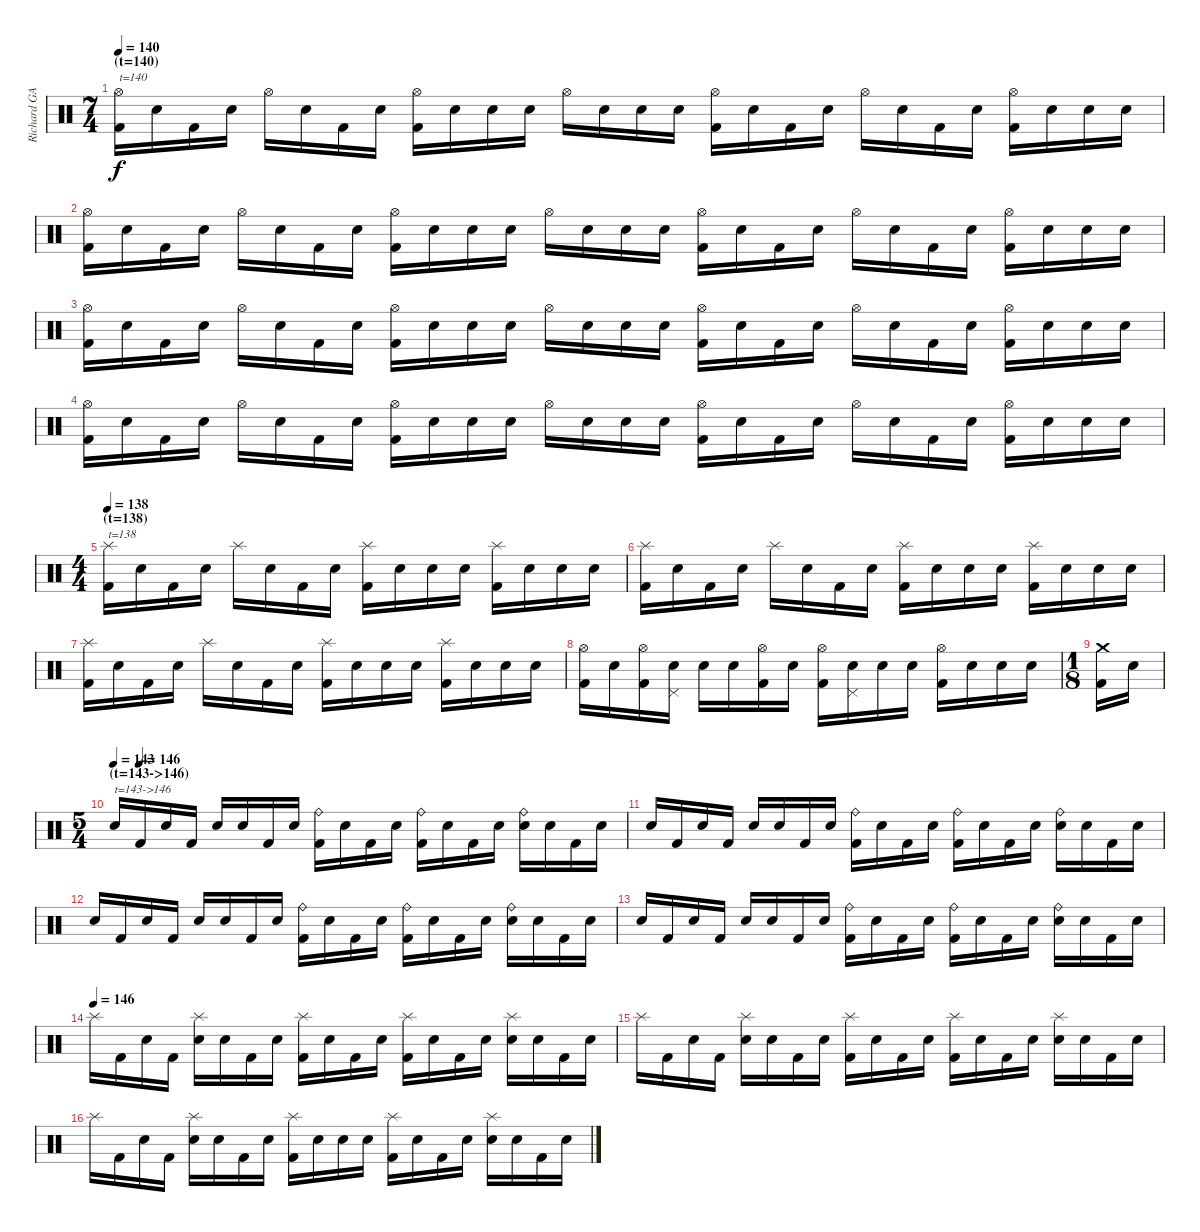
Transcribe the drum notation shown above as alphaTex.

\track ("Richard GAMBA - Batterie" "Richard GA") {instrument percussion}
\staff {score}
\articulation defaults
\ts (7 4)
\section ("" "(t=140)")
\tempo 140
\clef neutral
\ks c
("Hi-Hat (open)" "Kick (hit) 2").16{txt "t=140" dy f volume 16 balance 8} "Snare (hit)".16 "Kick (hit) 2".16 "Electric Snare (hit)".16 "Hi-Hat (open)".16 "Snare (hit)".16 "Kick (hit) 2".16 "Snare (hit)".16 ("Hi-Hat (open)" "Kick (hit) 2").16 "Electric Snare (hit)".16 "Snare (hit)".16 "Snare (hit)".16 "Hi-Hat (open)".16 "Snare (hit)".16 "Snare (hit)".16 "Snare (hit)".16 ("Hi-Hat (open)" "Kick (hit) 2").16 "Snare (hit)".16 "Kick (hit) 2".16 "Electric Snare (hit)".16 "Hi-Hat (open)".16 "Snare (hit)".16 "Kick (hit) 2".16 "Snare (hit)".16 ("Hi-Hat (open)" "Kick (hit) 2").16 "Electric Snare (hit)".16 "Snare (hit)".16 "Snare (hit)".16 |
("Hi-Hat (open)" "Kick (hit) 2").16 "Snare (hit)".16 "Kick (hit) 2".16 "Electric Snare (hit)".16 "Hi-Hat (open)".16 "Snare (hit)".16 "Kick (hit) 2".16 "Snare (hit)".16 ("Hi-Hat (open)" "Kick (hit) 2").16 "Electric Snare (hit)".16 "Snare (hit)".16 "Snare (hit)".16 "Hi-Hat (open)".16 "Snare (hit)".16 "Snare (hit)".16 "Snare (hit)".16 ("Hi-Hat (open)" "Kick (hit) 2").16 "Snare (hit)".16 "Kick (hit) 2".16 "Electric Snare (hit)".16 "Hi-Hat (open)".16 "Snare (hit)".16 "Kick (hit) 2".16 "Snare (hit)".16 ("Hi-Hat (open)" "Kick (hit) 2").16 "Electric Snare (hit)".16 "Snare (hit)".16 "Snare (hit)".16 |
("Hi-Hat (open)" "Kick (hit) 2").16 "Snare (hit)".16 "Kick (hit) 2".16 "Electric Snare (hit)".16 "Hi-Hat (open)".16 "Snare (hit)".16 "Kick (hit) 2".16 "Snare (hit)".16 ("Hi-Hat (open)" "Kick (hit) 2").16 "Electric Snare (hit)".16 "Snare (hit)".16 "Snare (hit)".16 "Hi-Hat (open)".16 "Snare (hit)".16 "Snare (hit)".16 "Snare (hit)".16 ("Hi-Hat (open)" "Kick (hit) 2").16 "Snare (hit)".16 "Kick (hit) 2".16 "Electric Snare (hit)".16 "Hi-Hat (open)".16 "Snare (hit)".16 "Kick (hit) 2".16 "Snare (hit)".16 ("Hi-Hat (open)" "Kick (hit) 2").16 "Electric Snare (hit)".16 "Snare (hit)".16 "Snare (hit)".16 |
("Hi-Hat (open)" "Kick (hit) 2").16 "Snare (hit)".16 "Kick (hit) 2".16 "Electric Snare (hit)".16 "Hi-Hat (open)".16 "Snare (hit)".16 "Kick (hit) 2".16 "Snare (hit)".16 ("Hi-Hat (open)" "Kick (hit) 2").16 "Electric Snare (hit)".16 "Snare (hit)".16 "Snare (hit)".16 "Hi-Hat (open)".16 "Snare (hit)".16 "Snare (hit)".16 "Snare (hit)".16 ("Hi-Hat (open)" "Kick (hit) 2").16 "Snare (hit)".16 "Kick (hit) 2".16 "Electric Snare (hit)".16 "Hi-Hat (open)".16 "Snare (hit)".16 "Kick (hit) 2".16 "Snare (hit)".16 ("Hi-Hat (open)" "Kick (hit) 2").16 "Electric Snare (hit)".16 "Snare (hit)".16 "Snare (hit)".16 |
\ts (4 4)
\section ("" "(t=138)")
\tempo 138
("Splash (hit)" "Kick (hit) 2").16{txt "t=138" volume 16 balance 8} "Snare (hit)".16 "Kick (hit) 2".16 "Electric Snare (hit)".16 "Splash (hit)".16 "Snare (hit)".16 "Kick (hit) 2".16 "Snare (hit)".16 ("Splash (hit)" "Kick (hit) 2").16 "Electric Snare (hit)".16 "Snare (hit)".16 "Snare (hit)".16 ("Splash (hit)" "Kick (hit) 2").16 "Snare (hit)".16 "Electric Snare (hit)".16 "Snare (hit)".16 |
("Splash (hit)" "Kick (hit) 2").16 "Snare (hit)".16 "Kick (hit) 2".16 "Electric Snare (hit)".16 "Splash (hit)".16 "Snare (hit)".16 "Kick (hit) 2".16 "Snare (hit)".16 ("Splash (hit)" "Kick (hit) 2").16 "Electric Snare (hit)".16 "Snare (hit)".16 "Snare (hit)".16 ("Splash (hit)" "Kick (hit) 2").16 "Snare (hit)".16 "Electric Snare (hit)".16 "Snare (hit)".16 |
("Splash (hit)" "Kick (hit) 2").16 "Snare (hit)".16 "Kick (hit) 2".16 "Electric Snare (hit)".16 "Splash (hit)".16 "Snare (hit)".16 "Kick (hit) 2".16 "Snare (hit)".16 ("Splash (hit)" "Kick (hit) 2").16 "Electric Snare (hit)".16 "Snare (hit)".16 "Snare (hit)".16 ("Splash (hit)" "Kick (hit) 2").16 "Snare (hit)".16 "Electric Snare (hit)".16 "Snare (hit)".16 |
("Hi-Hat (open)" "Kick (hit) 2").16 "Snare (hit)".16 ("Hi-Hat (open)" "Kick (hit) 2").16 ("Pedal Hi-Hat (hit)" "Electric Snare (hit)").16 "Snare (hit)".16 "Snare (hit)".16 ("Hi-Hat (open)" "Kick (hit) 2").16 "Snare (hit)".16 ("Hi-Hat (open)" "Kick (hit) 2").16 ("Pedal Hi-Hat (hit)" "Electric Snare (hit)").16 "Snare (hit)".16 "Snare (hit)".16 ("Hi-Hat (open)" "Kick (hit) 2").16 "Snare (hit)".16 "Electric Snare (hit)".16 "Snare (hit)".16 |
\ts (1 8)
("Crash medium (hit)" "Kick (hit) 2").16 "Snare (hit)".16 |
\ts (5 4)
\section ("" "(t=143->146)")
\tempo 143
\tempo (146 0.05)
"Snare (hit)".16{txt "t=143->146" volume 16 balance 8} "Kick (hit) 2".16 "Snare (hit)".16 "Kick (hit) 2".16 "Electric Snare (hit)".16 "Snare (hit)".16 "Kick (hit) 2".16 "Snare (hit)".16 ("Ride (bell)" "Kick (hit) 2").16 "Snare (hit)".16 "Kick (hit) 2".16 "Snare (hit)".16 ("Ride (bell)" "Kick (hit) 2").16 "Snare (hit)".16 "Kick (hit) 2".16 "Snare (hit)".16 ("Ride (bell)" "Electric Snare (hit)").16 "Snare (hit)".16 "Kick (hit) 2".16 "Snare (hit)".16 |
"Snare (hit)".16 "Kick (hit) 2".16 "Snare (hit)".16 "Kick (hit) 2".16 "Electric Snare (hit)".16 "Snare (hit)".16 "Kick (hit) 2".16 "Snare (hit)".16 ("Ride (bell)" "Kick (hit) 2").16 "Snare (hit)".16 "Kick (hit) 2".16 "Snare (hit)".16 ("Ride (bell)" "Kick (hit) 2").16 "Snare (hit)".16 "Kick (hit) 2".16 "Snare (hit)".16 ("Ride (bell)" "Electric Snare (hit)").16 "Snare (hit)".16 "Kick (hit) 2".16 "Snare (hit)".16 |
"Snare (hit)".16 "Kick (hit) 2".16 "Snare (hit)".16 "Kick (hit) 2".16 "Electric Snare (hit)".16 "Snare (hit)".16 "Kick (hit) 2".16 "Snare (hit)".16 ("Ride (bell)" "Kick (hit) 2").16 "Snare (hit)".16 "Kick (hit) 2".16 "Snare (hit)".16 ("Ride (bell)" "Kick (hit) 2").16 "Snare (hit)".16 "Kick (hit) 2".16 "Snare (hit)".16 ("Ride (bell)" "Electric Snare (hit)").16 "Snare (hit)".16 "Kick (hit) 2".16 "Snare (hit)".16 |
"Snare (hit)".16 "Kick (hit) 2".16 "Snare (hit)".16 "Kick (hit) 2".16 "Electric Snare (hit)".16 "Snare (hit)".16 "Kick (hit) 2".16 "Snare (hit)".16 ("Ride (bell)" "Kick (hit) 2").16 "Snare (hit)".16 "Kick (hit) 2".16 "Snare (hit)".16 ("Ride (bell)" "Kick (hit) 2").16 "Snare (hit)".16 "Kick (hit) 2".16 "Snare (hit)".16 ("Ride (bell)" "Electric Snare (hit)").16 "Snare (hit)".16 "Kick (hit) 2".16 "Snare (hit)".16 |
\section ("" "")
\tempo (146)
"Splash (hit)".16{volume 16 balance 8} "Kick (hit) 2".16 "Snare (hit)".16 "Kick (hit) 2".16 ("Splash (hit)" "Electric Snare (hit)").16 "Snare (hit)".16 "Kick (hit) 2".16 "Snare (hit)".16 ("Splash (hit)" "Kick (hit) 2").16 "Snare (hit)".16 "Kick (hit) 2".16 "Snare (hit)".16 ("Splash (hit)" "Kick (hit) 2").16 "Snare (hit)".16 "Kick (hit) 2".16 "Snare (hit)".16 ("Splash (hit)" "Electric Snare (hit)").16 "Snare (hit)".16 "Kick (hit) 2".16 "Snare (hit)".16 |
"Splash (hit)".16 "Kick (hit) 2".16 "Snare (hit)".16 "Kick (hit) 2".16 ("Splash (hit)" "Electric Snare (hit)").16 "Snare (hit)".16 "Kick (hit) 2".16 "Snare (hit)".16 ("Splash (hit)" "Kick (hit) 2").16 "Snare (hit)".16 "Kick (hit) 2".16 "Snare (hit)".16 ("Splash (hit)" "Kick (hit) 2").16 "Snare (hit)".16 "Kick (hit) 2".16 "Snare (hit)".16 ("Splash (hit)" "Electric Snare (hit)").16 "Snare (hit)".16 "Kick (hit) 2".16 "Snare (hit)".16 |
"Splash (hit)".16 "Kick (hit) 2".16 "Snare (hit)".16 "Kick (hit) 2".16 ("Splash (hit)" "Electric Snare (hit)").16 "Snare (hit)".16 "Kick (hit) 2".16 "Snare (hit)".16 ("Splash (hit)" "Kick (hit) 2").16 "Snare (hit)".16 "Snare (hit)".16 "Snare (hit)".16 ("Splash (hit)" "Kick (hit) 2").16 "Snare (hit)".16 "Kick (hit) 2".16 "Snare (hit)".16 ("Splash (hit)" "Electric Snare (hit)").16 "Snare (hit)".16 "Kick (hit) 2".16 "Snare (hit)".16
